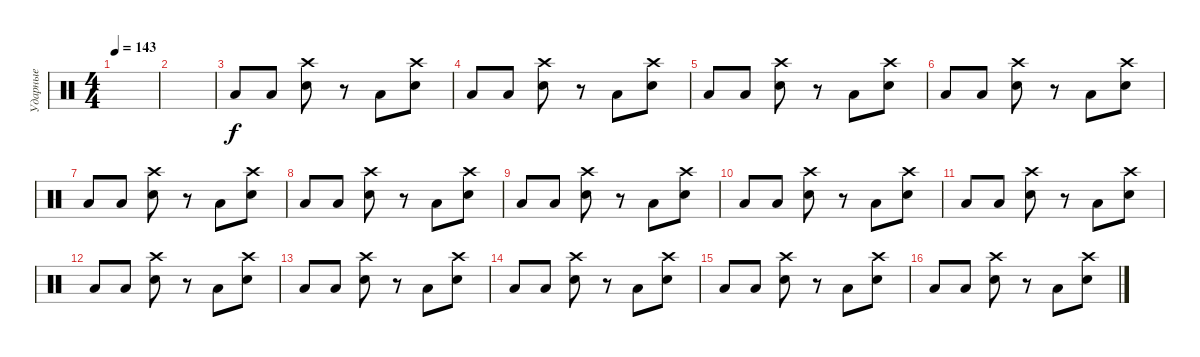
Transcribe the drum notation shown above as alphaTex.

\track ("Ударные" "Ударные") {instrument percussion}
\staff {score}
\articulation defaults
\ts (4 4)
\tempo 143
\clef neutral
\ks c
|
|
"Low Tom (hit)".8 "Low Tom (hit)".8 ("Crash high (hit)" "Snare (hit) 2").8 r.8 "Low Tom (hit)".8 ("Crash high (hit)" "Snare (hit) 2").8 |
"Low Tom (hit)".8 "Low Tom (hit)".8 ("Crash high (hit)" "Snare (hit) 2").8 r.8 "Low Tom (hit)".8 ("Crash high (hit)" "Snare (hit) 2").8 |
"Low Tom (hit)".8 "Low Tom (hit)".8 ("Crash high (hit)" "Snare (hit) 2").8 r.8 "Low Tom (hit)".8 ("Crash high (hit)" "Snare (hit) 2").8 |
"Low Tom (hit)".8 "Low Tom (hit)".8 ("Crash high (hit)" "Snare (hit) 2").8 r.8 "Low Tom (hit)".8 ("Crash high (hit)" "Snare (hit) 2").8 |
"Low Tom (hit)".8 "Low Tom (hit)".8 ("Crash high (hit)" "Snare (hit) 2").8 r.8 "Low Tom (hit)".8 ("Crash high (hit)" "Snare (hit) 2").8 |
"Low Tom (hit)".8 "Low Tom (hit)".8 ("Crash high (hit)" "Snare (hit) 2").8 r.8 "Low Tom (hit)".8 ("Crash high (hit)" "Snare (hit) 2").8 |
"Low Tom (hit)".8 "Low Tom (hit)".8 ("Crash high (hit)" "Snare (hit) 2").8 r.8 "Low Tom (hit)".8 ("Crash high (hit)" "Snare (hit) 2").8 |
"Low Tom (hit)".8 "Low Tom (hit)".8 ("Crash high (hit)" "Snare (hit) 2").8 r.8 "Low Tom (hit)".8 ("Crash high (hit)" "Snare (hit) 2").8 |
"Low Tom (hit)".8 "Low Tom (hit)".8 ("Crash high (hit)" "Snare (hit) 2").8 r.8 "Low Tom (hit)".8 ("Crash high (hit)" "Snare (hit) 2").8 |
"Low Tom (hit)".8 "Low Tom (hit)".8 ("Crash high (hit)" "Snare (hit) 2").8 r.8 "Low Tom (hit)".8 ("Crash high (hit)" "Snare (hit) 2").8 |
"Low Tom (hit)".8 "Low Tom (hit)".8 ("Crash high (hit)" "Snare (hit) 2").8 r.8 "Low Tom (hit)".8 ("Crash high (hit)" "Snare (hit) 2").8 |
"Low Tom (hit)".8 "Low Tom (hit)".8 ("Crash high (hit)" "Snare (hit) 2").8 r.8 "Low Tom (hit)".8 ("Crash high (hit)" "Snare (hit) 2").8 |
"Low Tom (hit)".8 "Low Tom (hit)".8 ("Crash high (hit)" "Snare (hit) 2").8 r.8 "Low Tom (hit)".8 ("Crash high (hit)" "Snare (hit) 2").8 |
"Low Tom (hit)".8 "Low Tom (hit)".8 ("Crash high (hit)" "Snare (hit) 2").8 r.8 "Low Tom (hit)".8 ("Crash high (hit)" "Snare (hit) 2").8
